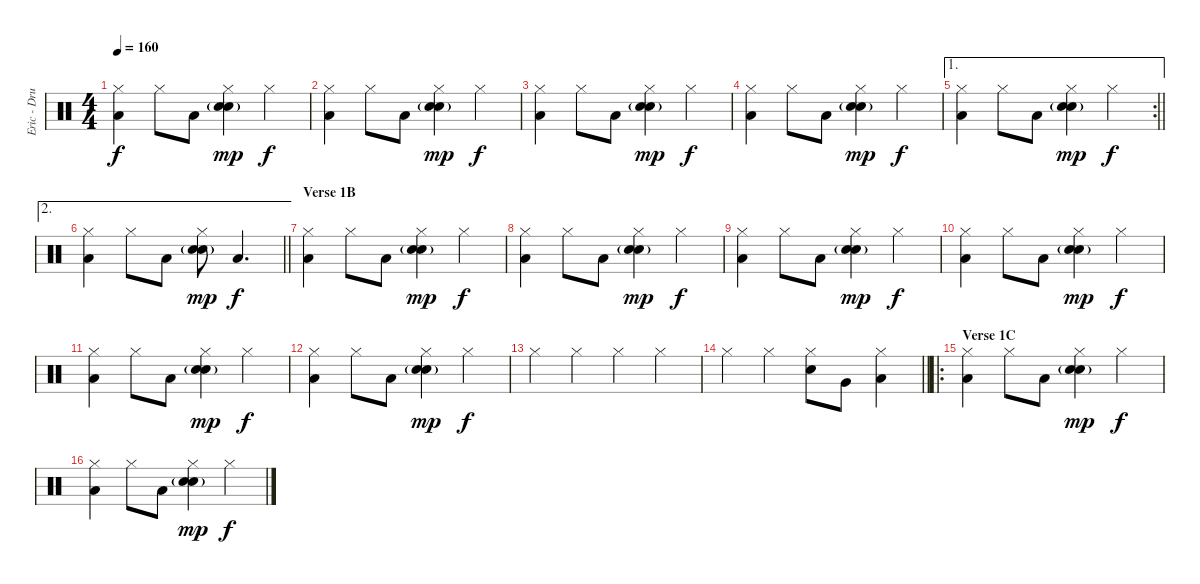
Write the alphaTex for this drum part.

\track ("Eric - Drums" "Eric - Dru") {instrument percussion}
\staff {score}
\articulation defaults
\ts (4 4)
\tempo 160
\clef neutral
\ks c
("Hi-Hat (closed)" "Low Floor Tom (hit)").4{dy f} "Hi-Hat (closed)".8 "Low Floor Tom (hit)".8 ("Hi-Hat (closed)" "Electric Snare (hit)" "Snare (hit) 2"{g}).4{dy mp} "Hi-Hat (closed)".4{dy f} |
("Hi-Hat (closed)" "Low Floor Tom (hit)").4 "Hi-Hat (closed)".8 "Low Floor Tom (hit)".8 ("Hi-Hat (closed)" "Electric Snare (hit)" "Snare (hit) 2"{g}).4{dy mp} "Hi-Hat (closed)".4{dy f} |
("Hi-Hat (closed)" "Low Floor Tom (hit)").4 "Hi-Hat (closed)".8 "Low Floor Tom (hit)".8 ("Hi-Hat (closed)" "Electric Snare (hit)" "Snare (hit) 2"{g}).4{dy mp} "Hi-Hat (closed)".4{dy f} |
("Hi-Hat (closed)" "Low Floor Tom (hit)").4 "Hi-Hat (closed)".8 "Low Floor Tom (hit)".8 ("Hi-Hat (closed)" "Electric Snare (hit)" "Snare (hit) 2"{g}).4{dy mp} "Hi-Hat (closed)".4{dy f} |
\ae 1
\rc 2
\barLineRight lightlight
("Hi-Hat (closed)" "Low Floor Tom (hit)").4 "Hi-Hat (closed)".8 "Low Floor Tom (hit)".8 ("Hi-Hat (closed)" "Electric Snare (hit)" "Snare (hit) 2"{g}).4{dy mp} "Hi-Hat (closed)".4{dy f} |
\ae 2
\barLineRight lightlight
("Hi-Hat (closed)" "Low Floor Tom (hit)").4 "Hi-Hat (closed)".8 "Low Floor Tom (hit)".8 ("Hi-Hat (closed)" "Electric Snare (hit)" "Snare (hit) 2"{g}).8{dy mp} "Low Floor Tom (hit)".4{d dy f} |
\section ("" "Verse 1B")
("Hi-Hat (closed)" "Low Floor Tom (hit)").4 "Hi-Hat (closed)".8 "Low Floor Tom (hit)".8 ("Hi-Hat (closed)" "Electric Snare (hit)" "Snare (hit) 2"{g}).4{dy mp} "Hi-Hat (closed)".4{dy f} |
("Hi-Hat (closed)" "Low Floor Tom (hit)").4 "Hi-Hat (closed)".8 "Low Floor Tom (hit)".8 ("Hi-Hat (closed)" "Electric Snare (hit)" "Snare (hit) 2"{g}).4{dy mp} "Hi-Hat (closed)".4{dy f} |
("Hi-Hat (closed)" "Low Floor Tom (hit)").4 "Hi-Hat (closed)".8 "Low Floor Tom (hit)".8 ("Hi-Hat (closed)" "Electric Snare (hit)" "Snare (hit) 2"{g}).4{dy mp} "Hi-Hat (closed)".4{dy f} |
("Hi-Hat (closed)" "Low Floor Tom (hit)").4 "Hi-Hat (closed)".8 "Low Floor Tom (hit)".8 ("Hi-Hat (closed)" "Electric Snare (hit)" "Snare (hit) 2"{g}).4{dy mp} "Hi-Hat (closed)".4{dy f} |
("Hi-Hat (closed)" "Low Floor Tom (hit)").4 "Hi-Hat (closed)".8 "Low Floor Tom (hit)".8 ("Hi-Hat (closed)" "Electric Snare (hit)" "Snare (hit) 2"{g}).4{dy mp} "Hi-Hat (closed)".4{dy f} |
("Hi-Hat (closed)" "Low Floor Tom (hit)").4 "Hi-Hat (closed)".8 "Low Floor Tom (hit)".8 ("Hi-Hat (closed)" "Electric Snare (hit)" "Snare (hit) 2"{g}).4{dy mp} "Hi-Hat (closed)".4{dy f} |
"Hi-Hat (closed)".4 "Hi-Hat (closed)".4 "Hi-Hat (closed)".4 "Hi-Hat (closed)".4 |
\barLineRight lightlight "Hi-Hat (closed)".4 "Hi-Hat (closed)".4
("Hi-Hat (closed)" "Electric Snare (hit)").8 "Very Low Tom (hit)".8 ("Hi-Hat (closed)" "Low Floor Tom (hit)").4 |
\ro
\section ("" "Verse 1C")
("Hi-Hat (closed)" "Low Floor Tom (hit)").4 "Hi-Hat (closed)".8 "Low Floor Tom (hit)".8 ("Hi-Hat (closed)" "Electric Snare (hit)" "Snare (hit) 2"{g}).4{dy mp} "Hi-Hat (closed)".4{dy f} |
("Hi-Hat (closed)" "Low Floor Tom (hit)").4 "Hi-Hat (closed)".8 "Low Floor Tom (hit)".8 ("Hi-Hat (closed)" "Electric Snare (hit)" "Snare (hit) 2"{g}).4{dy mp} "Hi-Hat (closed)".4{dy f}
